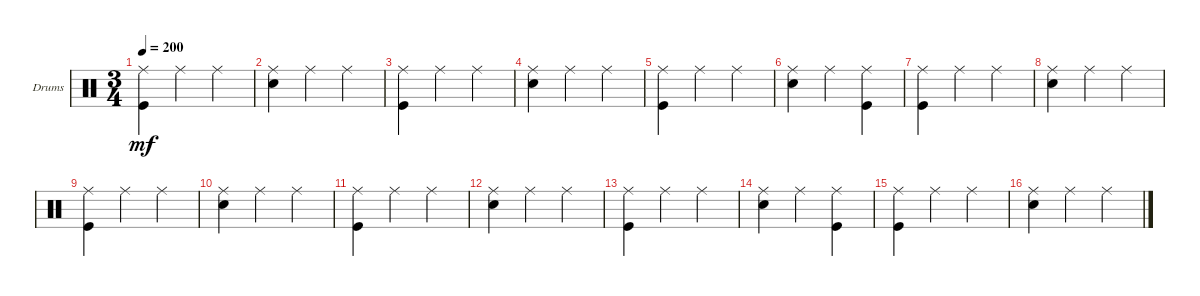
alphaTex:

\bracketExtendMode groupsimilarinstruments
\firstSystemTrackNameOrientation horizontal
\otherSystemsTrackNameOrientation horizontal
\track ("Drumkit" "Drums") {instrument percussion}
\staff {score}
\articulation defaults
\ts (3 4)
\tempo 200
\clef neutral
\scale
0.333333
\ks c
("Kick (hit)" "Ride (middle)").4{dy mf} "Ride (middle)".4 "Ride (middle)".4 |
\scale
0.333333 ("Snare (hit) 2" "Ride (middle)").4 "Ride (middle)".4 "Ride (middle)".4 |
\scale
0.333333 ("Kick (hit)" "Ride (middle)").4 "Ride (middle)".4 "Ride (middle)".4 |
\scale
0.333333 ("Snare (hit) 2" "Ride (middle)").4 "Ride (middle)".4 "Ride (middle)".4 |
\scale
0.333333 ("Kick (hit)" "Ride (middle)").4 "Ride (middle)".4 "Ride (middle)".4 |
\scale
0.333333 ("Snare (hit) 2" "Ride (middle)").4 "Ride (middle)".4 ("Ride (middle)" "Kick (hit)").4 |
\scale
0.333333 ("Kick (hit)" "Ride (middle)").4 "Ride (middle)".4 "Ride (middle)".4 |
\scale
0.333333 ("Snare (hit) 2" "Ride (middle)").4 "Ride (middle)".4 "Ride (middle)".4 |
\scale
0.333333 ("Kick (hit)" "Ride (middle)").4 "Ride (middle)".4 "Ride (middle)".4 |
\scale
0.333333 ("Snare (hit) 2" "Ride (middle)").4 "Ride (middle)".4 "Ride (middle)".4 |
\scale
0.333333 ("Kick (hit)" "Ride (middle)").4 "Ride (middle)".4 "Ride (middle)".4 |
\scale
0.333333 ("Snare (hit) 2" "Ride (middle)").4 "Ride (middle)".4 "Ride (middle)".4 |
\scale
0.333333 ("Kick (hit)" "Ride (middle)").4 "Ride (middle)".4 "Ride (middle)".4 |
\scale
0.333333 ("Snare (hit) 2" "Ride (middle)").4 "Ride (middle)".4 ("Ride (middle)" "Kick (hit)").4 |
\scale
0.333333 ("Kick (hit)" "Ride (middle)").4 "Ride (middle)".4 "Ride (middle)".4 |
\scale
0.333333 ("Snare (hit) 2" "Ride (middle)").4 "Ride (middle)".4 "Ride (middle)".4
